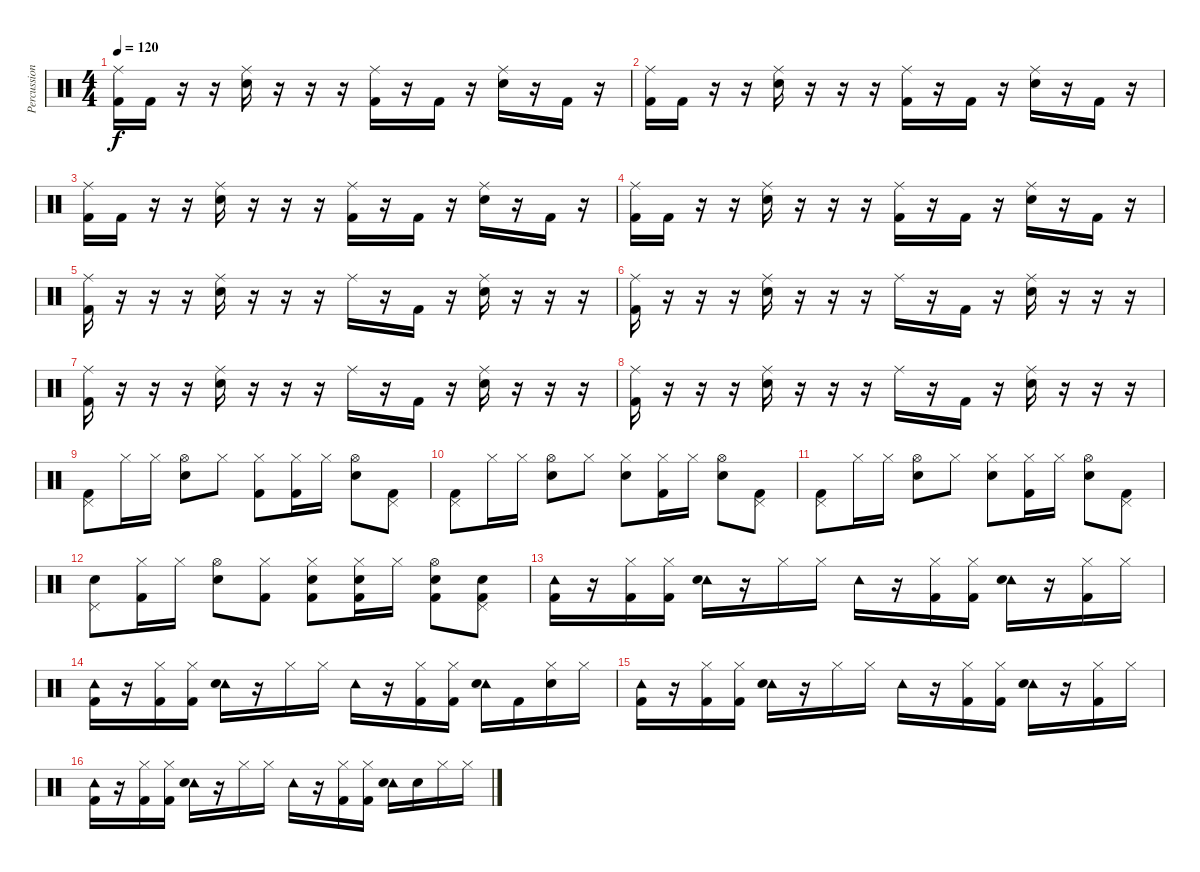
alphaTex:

\track ("Percussion" "Percussion") {instrument percussion}
\staff {score}
\articulation defaults
\ts (4 4)
\tempo 120
\clef neutral
\ks c
("Ride (middle)" "Kick (hit) 2").16{dy f} "Kick (hit) 2".16 r.16 r.16 ("Ride (middle)" "Electric Snare (hit)").16 r.16 r.16 r.16 ("Ride (middle)" "Kick (hit) 2").16 r.16 "Kick (hit) 2".16 r.16 ("Ride (middle)" "Electric Snare (hit)").16 r.16 "Kick (hit) 2".16 r.16 |
("Ride (middle)" "Kick (hit) 2").16 "Kick (hit) 2".16 r.16 r.16 ("Ride (middle)" "Electric Snare (hit)").16 r.16 r.16 r.16 ("Ride (middle)" "Kick (hit) 2").16 r.16 "Kick (hit) 2".16 r.16 ("Ride (middle)" "Electric Snare (hit)").16 r.16 "Kick (hit) 2".16 r.16 |
("Ride (middle)" "Kick (hit) 2").16 "Kick (hit) 2".16 r.16 r.16 ("Ride (middle)" "Electric Snare (hit)").16 r.16 r.16 r.16 ("Ride (middle)" "Kick (hit) 2").16 r.16 "Kick (hit) 2".16 r.16 ("Ride (middle)" "Electric Snare (hit)").16 r.16 "Kick (hit) 2".16 r.16 |
("Ride (middle)" "Kick (hit) 2").16 "Kick (hit) 2".16 r.16 r.16 ("Ride (middle)" "Electric Snare (hit)").16 r.16 r.16 r.16 ("Ride (middle)" "Kick (hit) 2").16 r.16 "Kick (hit) 2".16 r.16 ("Ride (middle)" "Electric Snare (hit)").16 r.16 "Kick (hit) 2".16 r.16 |
("Ride (middle)" "Kick (hit) 2").16 r.16 r.16 r.16 ("Ride (middle)" "Electric Snare (hit)").16 r.16 r.16 r.16 "Ride (middle)".16 r.16 "Kick (hit) 2".16 r.16 ("Ride (middle)" "Electric Snare (hit)").16 r.16 r.16 r.16 |
("Ride (middle)" "Kick (hit) 2").16 r.16 r.16 r.16 ("Ride (middle)" "Electric Snare (hit)").16 r.16 r.16 r.16 "Ride (middle)".16 r.16 "Kick (hit) 2".16 r.16 ("Ride (middle)" "Electric Snare (hit)").16 r.16 r.16 r.16 |
("Ride (middle)" "Kick (hit) 2").16 r.16 r.16 r.16 ("Ride (middle)" "Electric Snare (hit)").16 r.16 r.16 r.16 "Ride (middle)".16 r.16 "Kick (hit) 2".16 r.16 ("Ride (middle)" "Electric Snare (hit)").16 r.16 r.16 r.16 |
("Ride (middle)" "Kick (hit) 2").16 r.16 r.16 r.16 ("Ride (middle)" "Electric Snare (hit)").16 r.16 r.16 r.16 "Ride (middle)".16 r.16 "Kick (hit) 2".16 r.16 ("Ride (middle)" "Electric Snare (hit)").16 r.16 r.16 r.16 |
("Pedal Hi-Hat (hit)" "Kick (hit) 2").8 "Hi-Hat (closed)".16 "Hi-Hat (closed)".16 ("Hi-Hat (open)" "Electric Snare (hit)").8 "Hi-Hat (closed)".8 ("Hi-Hat (closed)" "Kick (hit) 2").8 ("Hi-Hat (closed)" "Kick (hit) 2").16 "Hi-Hat (closed)".16 ("Hi-Hat (open)" "Electric Snare (hit)").8 ("Pedal Hi-Hat (hit)" "Kick (hit) 2").8 |
("Pedal Hi-Hat (hit)" "Kick (hit) 2").8 "Hi-Hat (closed)".16 "Hi-Hat (closed)".16 ("Hi-Hat (open)" "Electric Snare (hit)").8 "Hi-Hat (closed)".8 ("Hi-Hat (closed)" "Electric Snare (hit)").8 ("Hi-Hat (closed)" "Kick (hit) 2").16 "Hi-Hat (closed)".16 ("Hi-Hat (open)" "Electric Snare (hit)").8 ("Pedal Hi-Hat (hit)" "Kick (hit) 2").8 |
("Pedal Hi-Hat (hit)" "Kick (hit) 2").8 "Hi-Hat (closed)".16 "Hi-Hat (closed)".16 ("Hi-Hat (open)" "Electric Snare (hit)").8 "Hi-Hat (closed)".8 ("Hi-Hat (closed)" "Electric Snare (hit)").8 ("Hi-Hat (closed)" "Kick (hit) 2").16 "Hi-Hat (closed)".16 ("Hi-Hat (open)" "Electric Snare (hit)").8 ("Pedal Hi-Hat (hit)" "Kick (hit) 2").8 |
("Pedal Hi-Hat (hit)" "Electric Snare (hit)").8 ("Hi-Hat (closed)" "Kick (hit) 2").16 "Hi-Hat (closed)".16 ("Hi-Hat (open)" "Electric Snare (hit)").8 ("Hi-Hat (closed)" "Kick (hit) 2").8 ("Hi-Hat (closed)" "Electric Snare (hit)" "Kick (hit) 2").8 ("Hi-Hat (closed)" "Electric Snare (hit)" "Kick (hit) 2").16 "Hi-Hat (closed)".16 ("Hi-Hat (open)" "Electric Snare (hit)" "Kick (hit) 2").8 ("Pedal Hi-Hat (hit)" "Electric Snare (hit)" "Kick (hit) 2").8 |
("Tambourine (hit)" "Kick (hit) 2").16 r.16 ("Hi-Hat (closed)" "Kick (hit) 2").16 ("Hi-Hat (closed)" "Kick (hit) 2").16 ("Tambourine (hit)" "Electric Snare (hit)").16 r.16 "Hi-Hat (closed)".16 "Hi-Hat (closed)".16 "Tambourine (hit)".16 r.16 ("Hi-Hat (closed)" "Kick (hit) 2").16 ("Hi-Hat (closed)" "Kick (hit) 2").16 ("Tambourine (hit)" "Electric Snare (hit)").16 r.16 ("Hi-Hat (closed)" "Kick (hit) 2").16 "Hi-Hat (closed)".16 |
("Tambourine (hit)" "Kick (hit) 2").16 r.16 ("Hi-Hat (closed)" "Kick (hit) 2").16 ("Hi-Hat (closed)" "Kick (hit) 2").16 ("Tambourine (hit)" "Electric Snare (hit)").16 r.16 "Hi-Hat (closed)".16 "Hi-Hat (closed)".16 "Tambourine (hit)".16 r.16 ("Hi-Hat (closed)" "Kick (hit) 2").16 ("Hi-Hat (closed)" "Kick (hit) 2").16 ("Tambourine (hit)" "Electric Snare (hit)").16 "Kick (hit) 2".16 ("Hi-Hat (closed)" "Electric Snare (hit)").16 "Hi-Hat (closed)".16 |
("Tambourine (hit)" "Kick (hit) 2").16 r.16 ("Hi-Hat (closed)" "Kick (hit) 2").16 ("Hi-Hat (closed)" "Kick (hit) 2").16 ("Tambourine (hit)" "Electric Snare (hit)").16 r.16 "Hi-Hat (closed)".16 "Hi-Hat (closed)".16 "Tambourine (hit)".16 r.16 ("Hi-Hat (closed)" "Kick (hit) 2").16 ("Hi-Hat (closed)" "Kick (hit) 2").16 ("Tambourine (hit)" "Electric Snare (hit)").16 r.16 ("Hi-Hat (closed)" "Kick (hit) 2").16 "Hi-Hat (closed)".16 |
("Tambourine (hit)" "Kick (hit) 2").16 r.16 ("Hi-Hat (closed)" "Kick (hit) 2").16 ("Hi-Hat (closed)" "Kick (hit) 2").16 ("Tambourine (hit)" "Electric Snare (hit)").16 r.16 "Hi-Hat (closed)".16 "Hi-Hat (closed)".16 "Tambourine (hit)".16 r.16 ("Hi-Hat (closed)" "Kick (hit) 2").16 ("Hi-Hat (closed)" "Kick (hit) 2").16 ("Tambourine (hit)" "Electric Snare (hit)").16 "Electric Snare (hit)".16 "Hi-Hat (closed)".16 "Hi-Hat (closed)".16
